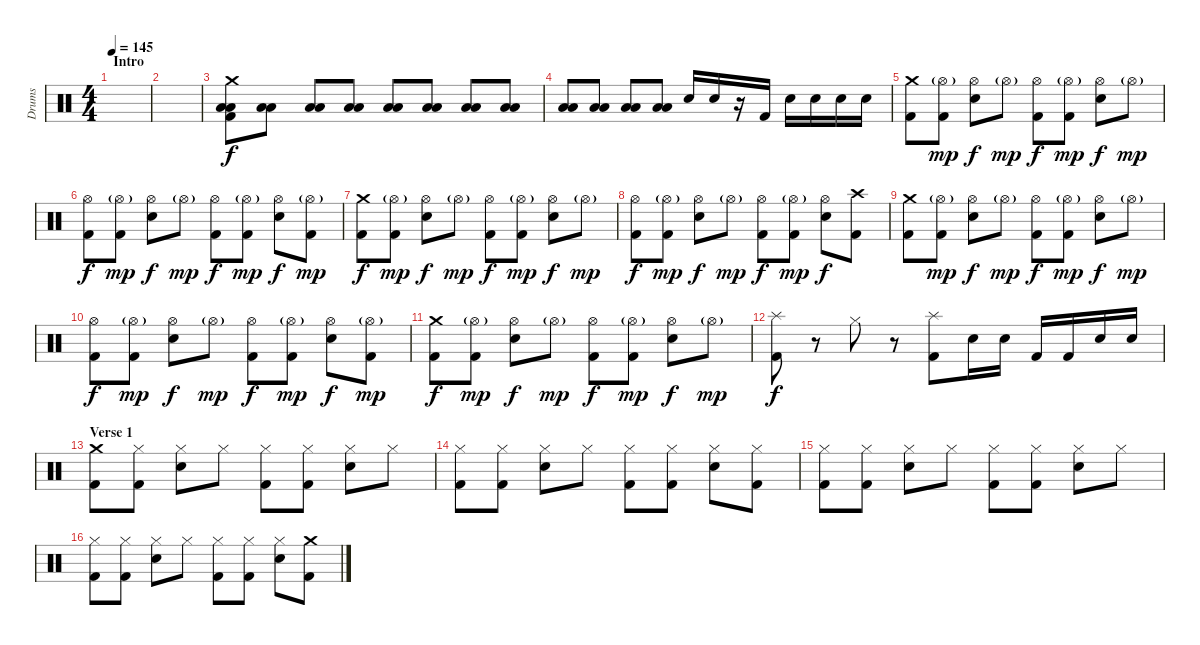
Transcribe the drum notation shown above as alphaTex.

\track ("Drums" "Drums") {instrument percussion}
\staff {score}
\articulation defaults
\ts (4 4)
\section ("" "Intro")
\tempo 145
\clef neutral
\ks c
|
|
("Crash medium (hit)" "Low Floor Tom (hit)" "Low Floor Tom (hit)" "Kick (hit) 2").8 ("Low Floor Tom (hit)" "Low Floor Tom (hit)").8 ("Low Floor Tom (hit)" "Low Floor Tom (hit)").8 ("Low Floor Tom (hit)" "Low Floor Tom (hit)").8 ("Low Floor Tom (hit)" "Low Floor Tom (hit)").8 ("Low Floor Tom (hit)" "Low Floor Tom (hit)").8 ("Low Floor Tom (hit)" "Low Floor Tom (hit)").8 ("Low Floor Tom (hit)" "Low Floor Tom (hit)").8 |
("Low Floor Tom (hit)" "Low Floor Tom (hit)").8 ("Low Floor Tom (hit)" "Low Floor Tom (hit)").8 ("Low Floor Tom (hit)" "Low Floor Tom (hit)").8 ("Low Floor Tom (hit)" "Low Floor Tom (hit)").8 "Electric Snare (hit)".16 "Electric Snare (hit)".16 r.16 "Kick (hit) 2".16 "Electric Snare (hit)".16 "Electric Snare (hit)".16 "Electric Snare (hit)".16 "Electric Snare (hit)".16 |
("Crash medium (hit)" "Kick (hit) 2").8 ("Hi-Hat (open)"{g} "Kick (hit) 2").8{dy mp} ("Hi-Hat (open)" "Electric Snare (hit)").8{dy f} "Hi-Hat (open)"{g}.8{dy mp} ("Hi-Hat (open)" "Kick (hit) 2").8{dy f} ("Hi-Hat (open)"{g} "Kick (hit) 2").8{dy mp} ("Hi-Hat (open)" "Electric Snare (hit)").8{dy f} "Hi-Hat (open)"{g}.8{dy mp} |
("Hi-Hat (open)" "Kick (hit) 2").8{dy f} ("Hi-Hat (open)"{g} "Kick (hit) 2").8{dy mp} ("Hi-Hat (open)" "Electric Snare (hit)").8{dy f} "Hi-Hat (open)"{g}.8{dy mp} ("Hi-Hat (open)" "Kick (hit) 2").8{dy f} ("Hi-Hat (open)"{g} "Kick (hit) 2").8{dy mp} ("Hi-Hat (open)" "Electric Snare (hit)").8{dy f} ("Hi-Hat (open)"{g} "Kick (hit) 2").8{dy mp} |
("Crash medium (hit)" "Kick (hit) 2").8{dy f} ("Hi-Hat (open)"{g} "Kick (hit) 2").8{dy mp} ("Hi-Hat (open)" "Electric Snare (hit)").8{dy f} "Hi-Hat (open)"{g}.8{dy mp} ("Hi-Hat (open)" "Kick (hit) 2").8{dy f} ("Hi-Hat (open)"{g} "Kick (hit) 2").8{dy mp} ("Hi-Hat (open)" "Electric Snare (hit)").8{dy f} "Hi-Hat (open)"{g}.8{dy mp} |
("Hi-Hat (open)" "Kick (hit) 2").8{dy f} ("Hi-Hat (open)"{g} "Kick (hit) 2").8{dy mp} ("Hi-Hat (open)" "Electric Snare (hit)").8{dy f} "Hi-Hat (open)"{g}.8{dy mp} ("Hi-Hat (open)" "Kick (hit) 2").8{dy f} ("Hi-Hat (open)"{g} "Kick (hit) 2").8{dy mp} ("Hi-Hat (open)" "Electric Snare (hit)").8{dy f} ("Crash high (hit)" "Kick (hit) 2").8 |
("Crash medium (hit)" "Kick (hit) 2").8 ("Hi-Hat (open)"{g} "Kick (hit) 2").8{dy mp} ("Hi-Hat (open)" "Electric Snare (hit)").8{dy f} "Hi-Hat (open)"{g}.8{dy mp} ("Hi-Hat (open)" "Kick (hit) 2").8{dy f} ("Hi-Hat (open)"{g} "Kick (hit) 2").8{dy mp} ("Hi-Hat (open)" "Electric Snare (hit)").8{dy f} "Hi-Hat (open)"{g}.8{dy mp} |
("Hi-Hat (open)" "Kick (hit) 2").8{dy f} ("Hi-Hat (open)"{g} "Kick (hit) 2").8{dy mp} ("Hi-Hat (open)" "Electric Snare (hit)").8{dy f} "Hi-Hat (open)"{g}.8{dy mp} ("Hi-Hat (open)" "Kick (hit) 2").8{dy f} ("Hi-Hat (open)"{g} "Kick (hit) 2").8{dy mp} ("Hi-Hat (open)" "Electric Snare (hit)").8{dy f} ("Hi-Hat (open)"{g} "Kick (hit) 2").8{dy mp} |
("Crash medium (hit)" "Kick (hit) 2").8{dy f} ("Hi-Hat (open)"{g} "Kick (hit) 2").8{dy mp} ("Hi-Hat (open)" "Electric Snare (hit)").8{dy f} "Hi-Hat (open)"{g}.8{dy mp} ("Hi-Hat (open)" "Kick (hit) 2").8{dy f} ("Hi-Hat (open)"{g} "Kick (hit) 2").8{dy mp} ("Hi-Hat (open)" "Electric Snare (hit)").8{dy f} "Hi-Hat (open)"{g}.8{dy mp} |
("Splash (hit)" "Kick (hit) 2").8{dy f} r.8 "Hi-Hat (closed)".8 r.8 ("Splash (hit)" "Kick (hit) 2").8 "Electric Snare (hit)".16 "Electric Snare (hit)".16 "Kick (hit) 2".16 "Kick (hit) 2".16 "Electric Snare (hit)".16 "Electric Snare (hit)".16 |
\section ("" "Verse 1")
("Crash medium (hit)" "Kick (hit) 2").8 ("Hi-Hat (closed)" "Kick (hit) 2").8 ("Hi-Hat (closed)" "Electric Snare (hit)").8 "Hi-Hat (closed)".8 ("Hi-Hat (closed)" "Kick (hit) 2").8 ("Hi-Hat (closed)" "Kick (hit) 2").8 ("Hi-Hat (closed)" "Electric Snare (hit)").8 "Hi-Hat (closed)".8 |
("Hi-Hat (closed)" "Kick (hit) 2").8 ("Hi-Hat (closed)" "Kick (hit) 2").8 ("Hi-Hat (closed)" "Electric Snare (hit)").8 "Hi-Hat (closed)".8 ("Hi-Hat (closed)" "Kick (hit) 2").8 ("Hi-Hat (closed)" "Kick (hit) 2").8 ("Hi-Hat (closed)" "Electric Snare (hit)").8 ("Hi-Hat (closed)" "Kick (hit) 2").8 |
("Hi-Hat (closed)" "Kick (hit) 2").8 ("Hi-Hat (closed)" "Kick (hit) 2").8 ("Hi-Hat (closed)" "Electric Snare (hit)").8 "Hi-Hat (closed)".8 ("Hi-Hat (closed)" "Kick (hit) 2").8 ("Hi-Hat (closed)" "Kick (hit) 2").8 ("Hi-Hat (closed)" "Electric Snare (hit)").8 "Hi-Hat (closed)".8 |
("Hi-Hat (closed)" "Kick (hit) 2").8 ("Hi-Hat (closed)" "Kick (hit) 2").8 ("Hi-Hat (closed)" "Electric Snare (hit)").8 "Hi-Hat (closed)".8 ("Hi-Hat (closed)" "Kick (hit) 2").8 ("Hi-Hat (closed)" "Kick (hit) 2").8 ("Hi-Hat (closed)" "Electric Snare (hit)").8 ("Crash medium (hit)" "Kick (hit) 2").8
